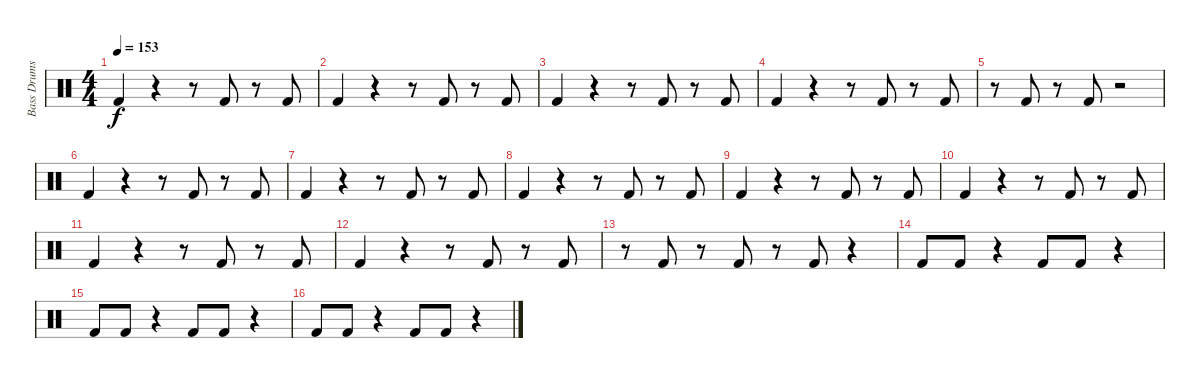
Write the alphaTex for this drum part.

\track ("Bass Drums" "Bass Drums") {instrument percussion}
\staff {score}
\articulation defaults
\ts (4 4)
\tempo 153
\clef neutral
\ks c "Kick (hit) 2".4{dy f}
r.4 r.8 "Kick (hit) 2".8 r.8 "Kick (hit) 2".8 |
"Kick (hit) 2".4 r.4 r.8 "Kick (hit) 2".8 r.8 "Kick (hit) 2".8 |
"Kick (hit) 2".4 r.4 r.8 "Kick (hit) 2".8 r.8 "Kick (hit) 2".8 |
"Kick (hit) 2".4 r.4 r.8 "Kick (hit) 2".8 r.8 "Kick (hit) 2".8 |
r.8 "Kick (hit) 2".8 r.8 "Kick (hit) 2".8 r.2 |
"Kick (hit) 2".4 r.4 r.8 "Kick (hit) 2".8 r.8 "Kick (hit) 2".8 |
"Kick (hit) 2".4 r.4 r.8 "Kick (hit) 2".8 r.8 "Kick (hit) 2".8 |
"Kick (hit) 2".4 r.4 r.8 "Kick (hit) 2".8 r.8 "Kick (hit) 2".8 |
"Kick (hit) 2".4 r.4 r.8 "Kick (hit) 2".8 r.8 "Kick (hit) 2".8 |
"Kick (hit) 2".4 r.4 r.8 "Kick (hit) 2".8 r.8 "Kick (hit) 2".8 |
"Kick (hit) 2".4 r.4 r.8 "Kick (hit) 2".8 r.8 "Kick (hit) 2".8 |
"Kick (hit) 2".4 r.4 r.8 "Kick (hit) 2".8 r.8 "Kick (hit) 2".8 |
r.8 "Kick (hit) 2".8 r.8 "Kick (hit) 2".8 r.8 "Kick (hit) 2".8 r.4 |
"Kick (hit) 2".8 "Kick (hit) 2".8 r.4 "Kick (hit) 2".8 "Kick (hit) 2".8 r.4 |
"Kick (hit) 2".8 "Kick (hit) 2".8 r.4 "Kick (hit) 2".8 "Kick (hit) 2".8 r.4 |
"Kick (hit) 2".8 "Kick (hit) 2".8 r.4 "Kick (hit) 2".8 "Kick (hit) 2".8 r.4
